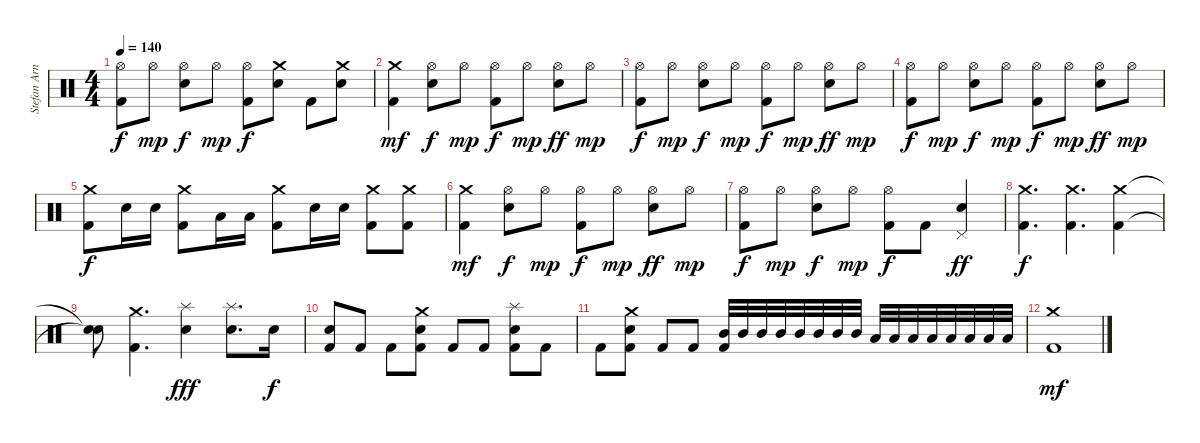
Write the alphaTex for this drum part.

\track ("Stefan Arnold" "Stefan Arn") {instrument percussion}
\staff {score}
\articulation defaults
\ts (4 4)
\tempo 140
\clef neutral
\ks c
("Hi-Hat (open)" "Kick (hit) 2").8{dy f} "Hi-Hat (open)".8{dy mp} ("Hi-Hat (open)" "Electric Snare (hit)").8{dy f} "Hi-Hat (open)".8{dy mp} ("Hi-Hat (open)" "Kick (hit) 2").8{dy f} ("Crash medium (hit)" "Electric Snare (hit)").8 "Kick (hit) 2".8 ("Crash medium (hit)" "Electric Snare (hit)").8 |
("Crash medium (hit)" "Kick (hit) 2").4{dy mf} ("Hi-Hat (open)" "Electric Snare (hit)").8{dy f} "Hi-Hat (open)".8{dy mp} ("Hi-Hat (open)" "Kick (hit) 2").8{dy f} "Hi-Hat (open)".8{dy mp} ("Hi-Hat (open)" "Electric Snare (hit)").8{dy ff} "Hi-Hat (open)".8{dy mp} |
("Hi-Hat (open)" "Kick (hit) 2").8{dy f} "Hi-Hat (open)".8{dy mp} ("Hi-Hat (open)" "Electric Snare (hit)").8{dy f} "Hi-Hat (open)".8{dy mp} ("Hi-Hat (open)" "Kick (hit) 2").8{dy f} "Hi-Hat (open)".8{dy mp} ("Hi-Hat (open)" "Electric Snare (hit)").8{dy ff} "Hi-Hat (open)".8{dy mp} |
("Hi-Hat (open)" "Kick (hit) 2").8{dy f} "Hi-Hat (open)".8{dy mp} ("Hi-Hat (open)" "Electric Snare (hit)").8{dy f} "Hi-Hat (open)".8{dy mp} ("Hi-Hat (open)" "Kick (hit) 2").8{dy f} "Hi-Hat (open)".8{dy mp} ("Hi-Hat (open)" "Electric Snare (hit)").8{dy ff} "Hi-Hat (open)".8{dy mp} |
("Crash medium (hit)" "Kick (hit) 2").8{dy f} "Electric Snare (hit)".16 "Electric Snare (hit)".16 ("Crash medium (hit)" "Kick (hit) 2").8 "Low Tom (hit)".16 "Low Tom (hit)".16 ("Crash medium (hit)" "Kick (hit) 2").8 "Electric Snare (hit)".16 "Electric Snare (hit)".16 ("Crash medium (hit)" "Kick (hit) 2").8 ("Crash medium (hit)" "Kick (hit) 2").8 |
("Crash medium (hit)" "Kick (hit) 2").4{dy mf} ("Hi-Hat (open)" "Electric Snare (hit)").8{dy f} "Hi-Hat (open)".8{dy mp} ("Hi-Hat (open)" "Kick (hit) 2").8{dy f} "Hi-Hat (open)".8{dy mp} ("Hi-Hat (open)" "Electric Snare (hit)").8{dy ff} "Hi-Hat (open)".8{dy mp} |
("Hi-Hat (open)" "Kick (hit) 2").8{dy f} "Hi-Hat (open)".8{dy mp} ("Hi-Hat (open)" "Electric Snare (hit)").8{dy f} "Hi-Hat (open)".8{dy mp} ("Hi-Hat (open)" "Kick (hit) 2").8{dy f} "Kick (hit) 2".8 ("Pedal Hi-Hat (hit)" "Electric Snare (hit)").4{dy ff} |
("Crash medium (hit)" "Kick (hit) 2").4{d dy f} ("Crash medium (hit)" "Kick (hit) 2").4{d} ("Crash medium (hit)" "Kick (hit) 2").4 |
("Snare (hit)"{t} "Snare (hit)"{t}).8 ("Crash medium (hit)" "Kick (hit) 2").4{d} ("Splash (hit)" "Electric Snare (hit)").4{dy fff} ("Splash (hit)" "Electric Snare (hit)").8{d} "Electric Snare (hit)".16{dy f} |
("Electric Snare (hit)" "Kick (hit) 2").8 "Kick (hit) 2".8 "Kick (hit) 2".8 ("Crash medium (hit)" "Electric Snare (hit)" "Kick (hit) 2").8 "Kick (hit) 2".8 "Kick (hit) 2".8 ("Splash (hit)" "Electric Snare (hit)" "Kick (hit) 2").8 "Kick (hit) 2".8 |
"Kick (hit) 2".8 ("Crash medium (hit)" "Electric Snare (hit)" "Kick (hit) 2").8 "Kick (hit) 2".8 "Kick (hit) 2".8 ("Mid Tom (hit)" "Kick (hit) 2").32 "Mid Tom (hit)".32 "Mid Tom (hit)".32 "Mid Tom (hit)".32 "Mid Tom (hit)".32 "Mid Tom (hit)".32 "Mid Tom (hit)".32 "Mid Tom (hit)".32 "Low Tom (hit)".32 "Low Tom (hit)".32 "Low Tom (hit)".32 "Low Tom (hit)".32 "Low Tom (hit)".32 "Low Tom (hit)".32 "Low Tom (hit)".32 "Low Tom (hit)".32 |
("Crash medium (hit)" "Kick (hit) 2").1{dy mf}
